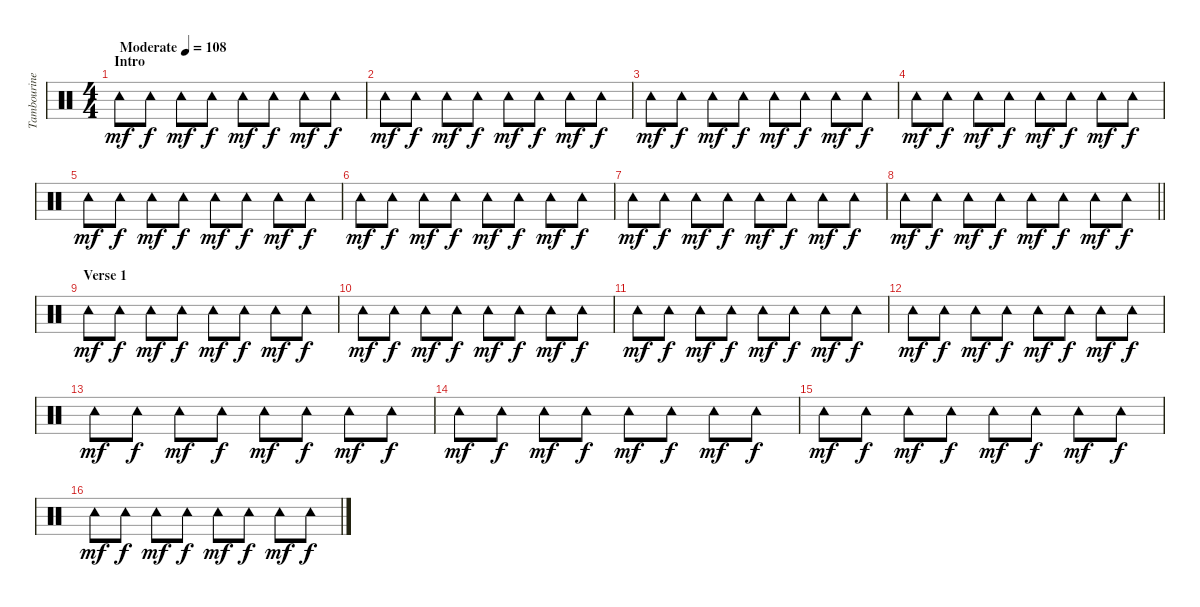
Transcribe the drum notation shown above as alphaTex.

\track ("Tambourine" "Tambourine") {instrument percussion}
\staff {score}
\articulation defaults
\ts (4 4)
\section ("" "Intro")
\tempo (108 "Moderate")
\clef neutral
\ks c "Tambourine (hit)".8{dy mf} "Tambourine (hit)".8{dy f} "Tambourine (hit)".8{dy mf} "Tambourine (hit)".8{dy f} "Tambourine (hit)".8{dy mf} "Tambourine (hit)".8{dy f} "Tambourine (hit)".8{dy mf} "Tambourine (hit)".8{dy f}
|
"Tambourine (hit)".8{dy mf} "Tambourine (hit)".8{dy f} "Tambourine (hit)".8{dy mf} "Tambourine (hit)".8{dy f} "Tambourine (hit)".8{dy mf} "Tambourine (hit)".8{dy f} "Tambourine (hit)".8{dy mf} "Tambourine (hit)".8{dy f} |
"Tambourine (hit)".8{dy mf} "Tambourine (hit)".8{dy f} "Tambourine (hit)".8{dy mf} "Tambourine (hit)".8{dy f} "Tambourine (hit)".8{dy mf} "Tambourine (hit)".8{dy f} "Tambourine (hit)".8{dy mf} "Tambourine (hit)".8{dy f} |
"Tambourine (hit)".8{dy mf} "Tambourine (hit)".8{dy f} "Tambourine (hit)".8{dy mf} "Tambourine (hit)".8{dy f} "Tambourine (hit)".8{dy mf} "Tambourine (hit)".8{dy f} "Tambourine (hit)".8{dy mf} "Tambourine (hit)".8{dy f} |
"Tambourine (hit)".8{dy mf} "Tambourine (hit)".8{dy f} "Tambourine (hit)".8{dy mf} "Tambourine (hit)".8{dy f} "Tambourine (hit)".8{dy mf} "Tambourine (hit)".8{dy f} "Tambourine (hit)".8{dy mf} "Tambourine (hit)".8{dy f} |
"Tambourine (hit)".8{dy mf} "Tambourine (hit)".8{dy f} "Tambourine (hit)".8{dy mf} "Tambourine (hit)".8{dy f} "Tambourine (hit)".8{dy mf} "Tambourine (hit)".8{dy f} "Tambourine (hit)".8{dy mf} "Tambourine (hit)".8{dy f} |
"Tambourine (hit)".8{dy mf} "Tambourine (hit)".8{dy f} "Tambourine (hit)".8{dy mf} "Tambourine (hit)".8{dy f} "Tambourine (hit)".8{dy mf} "Tambourine (hit)".8{dy f} "Tambourine (hit)".8{dy mf} "Tambourine (hit)".8{dy f} |
\barLineRight lightlight "Tambourine (hit)".8{dy mf} "Tambourine (hit)".8{dy f} "Tambourine (hit)".8{dy mf} "Tambourine (hit)".8{dy f} "Tambourine (hit)".8{dy mf} "Tambourine (hit)".8{dy f} "Tambourine (hit)".8{dy mf} "Tambourine (hit)".8{dy f}
|
\section ("" "Verse 1")
"Tambourine (hit)".8{dy mf} "Tambourine (hit)".8{dy f} "Tambourine (hit)".8{dy mf} "Tambourine (hit)".8{dy f} "Tambourine (hit)".8{dy mf} "Tambourine (hit)".8{dy f} "Tambourine (hit)".8{dy mf} "Tambourine (hit)".8{dy f} |
"Tambourine (hit)".8{dy mf} "Tambourine (hit)".8{dy f} "Tambourine (hit)".8{dy mf} "Tambourine (hit)".8{dy f} "Tambourine (hit)".8{dy mf} "Tambourine (hit)".8{dy f} "Tambourine (hit)".8{dy mf} "Tambourine (hit)".8{dy f} |
"Tambourine (hit)".8{dy mf} "Tambourine (hit)".8{dy f} "Tambourine (hit)".8{dy mf} "Tambourine (hit)".8{dy f} "Tambourine (hit)".8{dy mf} "Tambourine (hit)".8{dy f} "Tambourine (hit)".8{dy mf} "Tambourine (hit)".8{dy f} |
"Tambourine (hit)".8{dy mf} "Tambourine (hit)".8{dy f} "Tambourine (hit)".8{dy mf} "Tambourine (hit)".8{dy f} "Tambourine (hit)".8{dy mf} "Tambourine (hit)".8{dy f} "Tambourine (hit)".8{dy mf} "Tambourine (hit)".8{dy f} |
"Tambourine (hit)".8{dy mf} "Tambourine (hit)".8{dy f} "Tambourine (hit)".8{dy mf} "Tambourine (hit)".8{dy f} "Tambourine (hit)".8{dy mf} "Tambourine (hit)".8{dy f} "Tambourine (hit)".8{dy mf} "Tambourine (hit)".8{dy f} |
"Tambourine (hit)".8{dy mf} "Tambourine (hit)".8{dy f} "Tambourine (hit)".8{dy mf} "Tambourine (hit)".8{dy f} "Tambourine (hit)".8{dy mf} "Tambourine (hit)".8{dy f} "Tambourine (hit)".8{dy mf} "Tambourine (hit)".8{dy f} |
"Tambourine (hit)".8{dy mf} "Tambourine (hit)".8{dy f} "Tambourine (hit)".8{dy mf} "Tambourine (hit)".8{dy f} "Tambourine (hit)".8{dy mf} "Tambourine (hit)".8{dy f} "Tambourine (hit)".8{dy mf} "Tambourine (hit)".8{dy f} |
"Tambourine (hit)".8{dy mf} "Tambourine (hit)".8{dy f} "Tambourine (hit)".8{dy mf} "Tambourine (hit)".8{dy f} "Tambourine (hit)".8{dy mf} "Tambourine (hit)".8{dy f} "Tambourine (hit)".8{dy mf} "Tambourine (hit)".8{dy f}
